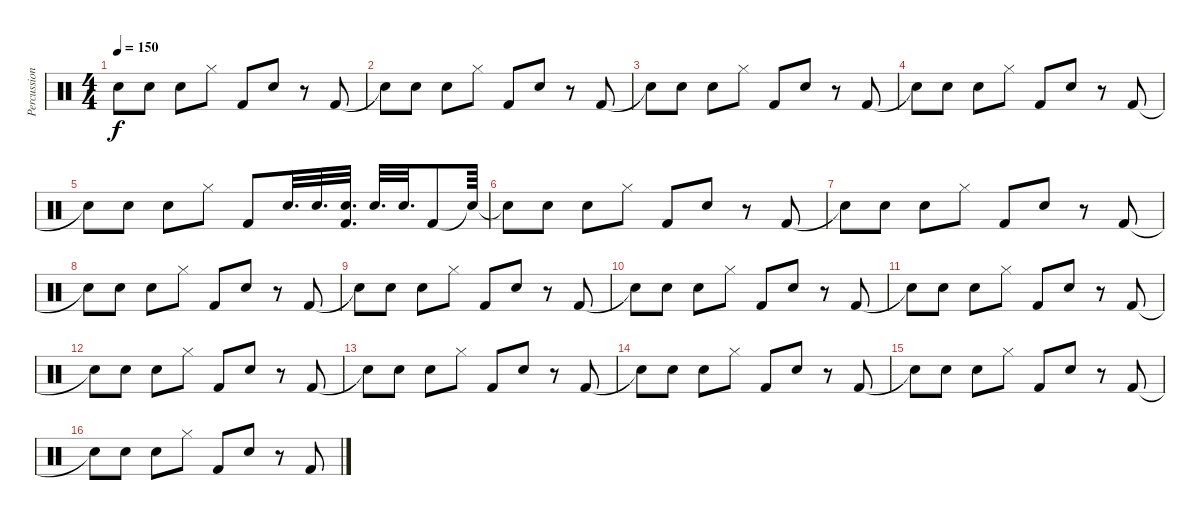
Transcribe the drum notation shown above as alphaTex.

\track ("Percussion" "Percussion") {instrument percussion}
\staff {score}
\articulation defaults
\ts (4 4)
\tempo 150
\clef neutral
\ks c "Snare (hit)"{t}.8{dy f} "Electric Snare (hit)".8 "Electric Snare (hit)".8 "Hi-Hat (closed)".8 "Kick (hit) 2".8 "Electric Snare (hit)".8
r.8 "Kick (hit) 2".8 |
"Snare (hit)"{t}.8 "Electric Snare (hit)".8 "Electric Snare (hit)".8 "Hi-Hat (closed)".8 "Kick (hit) 2".8 "Electric Snare (hit)".8 r.8 "Kick (hit) 2".8 |
"Snare (hit)"{t}.8 "Electric Snare (hit)".8 "Electric Snare (hit)".8 "Hi-Hat (closed)".8 "Kick (hit) 2".8 "Electric Snare (hit)".8 r.8 "Kick (hit) 2".8 |
"Snare (hit)"{t}.8 "Electric Snare (hit)".8 "Electric Snare (hit)".8 "Hi-Hat (closed)".8 "Kick (hit) 2".8 "Electric Snare (hit)".8 r.8 "Kick (hit) 2".8 |
"Snare (hit)"{t}.8 "Electric Snare (hit)".8 "Electric Snare (hit)".8 "Hi-Hat (closed)".8 "Kick (hit) 2".8 "Snare (hit) 2".32{d} "Snare (hit) 2".32{d} ("Kick (hit) 2" "Snare (hit) 2").32{d} "Snare (hit) 2".32{d} "Snare (hit) 2".32{d} "Kick (hit) 2".8 "Snare (hit)"{t}.64 |
"Snare (hit)"{t}.8 "Electric Snare (hit)".8 "Electric Snare (hit)".8 "Hi-Hat (closed)".8 "Kick (hit) 2".8 "Electric Snare (hit)".8 r.8 "Kick (hit) 2".8 |
"Snare (hit)"{t}.8 "Electric Snare (hit)".8 "Electric Snare (hit)".8 "Hi-Hat (closed)".8 "Kick (hit) 2".8 "Electric Snare (hit)".8 r.8 "Kick (hit) 2".8 |
"Snare (hit)"{t}.8 "Electric Snare (hit)".8 "Electric Snare (hit)".8 "Hi-Hat (closed)".8 "Kick (hit) 2".8 "Electric Snare (hit)".8 r.8 "Kick (hit) 2".8 |
"Snare (hit)"{t}.8 "Electric Snare (hit)".8 "Electric Snare (hit)".8 "Hi-Hat (closed)".8 "Kick (hit) 2".8 "Electric Snare (hit)".8 r.8 "Kick (hit) 2".8 |
"Snare (hit)"{t}.8 "Electric Snare (hit)".8 "Electric Snare (hit)".8 "Hi-Hat (closed)".8 "Kick (hit) 2".8 "Electric Snare (hit)".8 r.8 "Kick (hit) 2".8 |
"Snare (hit)"{t}.8 "Electric Snare (hit)".8 "Electric Snare (hit)".8 "Hi-Hat (closed)".8 "Kick (hit) 2".8 "Electric Snare (hit)".8 r.8 "Kick (hit) 2".8 |
"Snare (hit)"{t}.8 "Electric Snare (hit)".8 "Electric Snare (hit)".8 "Hi-Hat (closed)".8 "Kick (hit) 2".8 "Electric Snare (hit)".8 r.8 "Kick (hit) 2".8 |
"Snare (hit)"{t}.8 "Electric Snare (hit)".8 "Electric Snare (hit)".8 "Hi-Hat (closed)".8 "Kick (hit) 2".8 "Electric Snare (hit)".8 r.8 "Kick (hit) 2".8 |
"Snare (hit)"{t}.8 "Electric Snare (hit)".8 "Electric Snare (hit)".8 "Hi-Hat (closed)".8 "Kick (hit) 2".8 "Electric Snare (hit)".8 r.8 "Kick (hit) 2".8 |
"Snare (hit)"{t}.8 "Electric Snare (hit)".8 "Electric Snare (hit)".8 "Hi-Hat (closed)".8 "Kick (hit) 2".8 "Electric Snare (hit)".8 r.8 "Kick (hit) 2".8 |
"Snare (hit)"{t}.8 "Electric Snare (hit)".8 "Electric Snare (hit)".8 "Hi-Hat (closed)".8 "Kick (hit) 2".8 "Electric Snare (hit)".8 r.8 "Kick (hit) 2".8
